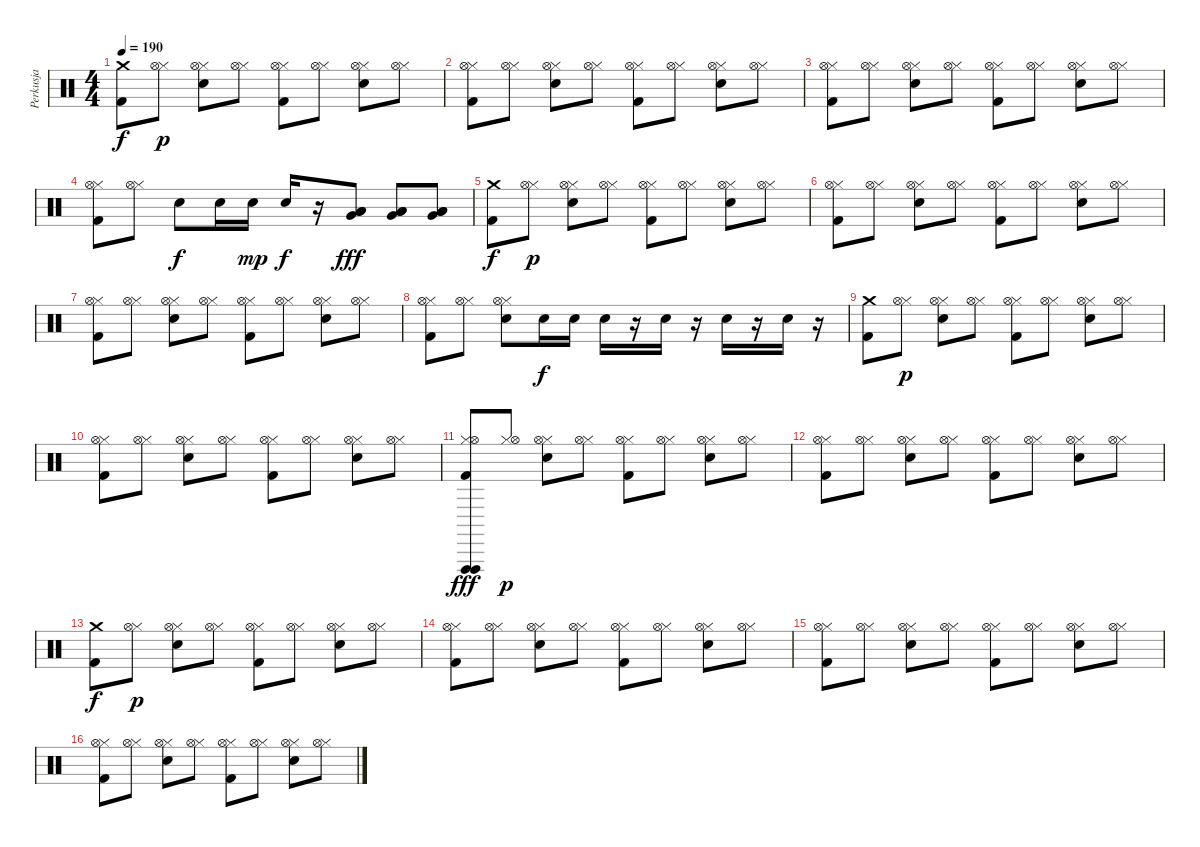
\track ("Perkusja" "Perkusja") {instrument percussion}
\staff {score}
\articulation defaults
\ts (4 4)
\tempo 190
\clef neutral
\ks c
("Kick (hit) 2" "Crash medium (hit)").8{dy f} ("Hi-Hat (closed)" "Hi-Hat (open)").8{dy p} ("Electric Snare (hit)" "Hi-Hat (closed)" "Hi-Hat (open)").8 ("Hi-Hat (closed)" "Hi-Hat (open)").8 ("Kick (hit) 2" "Hi-Hat (closed)" "Hi-Hat (open)").8 ("Hi-Hat (closed)" "Hi-Hat (open)").8 ("Electric Snare (hit)" "Hi-Hat (closed)" "Hi-Hat (open)").8 ("Hi-Hat (closed)" "Hi-Hat (open)").8 |
("Kick (hit) 2" "Hi-Hat (closed)" "Hi-Hat (open)").8 ("Hi-Hat (closed)" "Hi-Hat (open)").8 ("Electric Snare (hit)" "Hi-Hat (closed)" "Hi-Hat (open)").8 ("Hi-Hat (closed)" "Hi-Hat (open)").8 ("Kick (hit) 2" "Hi-Hat (closed)" "Hi-Hat (open)").8 ("Hi-Hat (closed)" "Hi-Hat (open)").8 ("Electric Snare (hit)" "Hi-Hat (closed)" "Hi-Hat (open)").8 ("Hi-Hat (closed)" "Hi-Hat (open)").8 |
("Kick (hit) 2" "Hi-Hat (closed)" "Hi-Hat (open)").8 ("Hi-Hat (closed)" "Hi-Hat (open)").8 ("Electric Snare (hit)" "Hi-Hat (closed)" "Hi-Hat (open)").8 ("Hi-Hat (closed)" "Hi-Hat (open)").8 ("Kick (hit) 2" "Hi-Hat (closed)" "Hi-Hat (open)").8 ("Hi-Hat (closed)" "Hi-Hat (open)").8 ("Electric Snare (hit)" "Hi-Hat (closed)" "Hi-Hat (open)").8 ("Hi-Hat (closed)" "Hi-Hat (open)").8 |
("Kick (hit) 2" "Hi-Hat (closed)" "Hi-Hat (open)").8 ("Hi-Hat (closed)" "Hi-Hat (open)").8 "Electric Snare (hit)".8{dy f} "Electric Snare (hit)".16 "Electric Snare (hit)".16{dy mp} "Electric Snare (hit)".16{dy f} r.16 ("Very Low Tom (hit)" "Low Tom (hit)" "Low Floor Tom (hit)").8{dy fff} ("Very Low Tom (hit)" "Low Tom (hit)" "Low Floor Tom (hit)").8 ("Very Low Tom (hit)" "Low Tom (hit)" "Low Floor Tom (hit)").8 |
("Kick (hit) 2" "Crash medium (hit)").8{dy f} ("Hi-Hat (closed)" "Hi-Hat (open)").8{dy p} ("Electric Snare (hit)" "Hi-Hat (closed)" "Hi-Hat (open)").8 ("Hi-Hat (closed)" "Hi-Hat (open)").8 ("Kick (hit) 2" "Hi-Hat (closed)" "Hi-Hat (open)").8 ("Hi-Hat (closed)" "Hi-Hat (open)").8 ("Electric Snare (hit)" "Hi-Hat (closed)" "Hi-Hat (open)").8 ("Hi-Hat (closed)" "Hi-Hat (open)").8 |
("Kick (hit) 2" "Hi-Hat (closed)" "Hi-Hat (open)").8 ("Hi-Hat (closed)" "Hi-Hat (open)").8 ("Electric Snare (hit)" "Hi-Hat (closed)" "Hi-Hat (open)").8 ("Hi-Hat (closed)" "Hi-Hat (open)").8 ("Kick (hit) 2" "Hi-Hat (closed)" "Hi-Hat (open)").8 ("Hi-Hat (closed)" "Hi-Hat (open)").8 ("Electric Snare (hit)" "Hi-Hat (closed)" "Hi-Hat (open)").8 ("Hi-Hat (closed)" "Hi-Hat (open)").8 |
("Kick (hit) 2" "Hi-Hat (closed)" "Hi-Hat (open)").8 ("Hi-Hat (closed)" "Hi-Hat (open)").8 ("Electric Snare (hit)" "Hi-Hat (closed)" "Hi-Hat (open)").8 ("Hi-Hat (closed)" "Hi-Hat (open)").8 ("Kick (hit) 2" "Hi-Hat (closed)" "Hi-Hat (open)").8 ("Hi-Hat (closed)" "Hi-Hat (open)").8 ("Electric Snare (hit)" "Hi-Hat (closed)" "Hi-Hat (open)").8 ("Hi-Hat (closed)" "Hi-Hat (open)").8 |
("Kick (hit) 2" "Hi-Hat (closed)" "Hi-Hat (open)").8 ("Hi-Hat (closed)" "Hi-Hat (open)").8 ("Electric Snare (hit)" "Hi-Hat (closed)" "Hi-Hat (open)").8 "Electric Snare (hit)".16{dy f} "Electric Snare (hit)".16 "Electric Snare (hit)".16 r.16 "Electric Snare (hit)".16 r.16 "Electric Snare (hit)".16 r.16 "Electric Snare (hit)".16 r.16 |
("Kick (hit) 2" "Crash medium (hit)").8 ("Hi-Hat (closed)" "Hi-Hat (open)").8{dy p} ("Electric Snare (hit)" "Hi-Hat (closed)" "Hi-Hat (open)").8 ("Hi-Hat (closed)" "Hi-Hat (open)").8 ("Kick (hit) 2" "Hi-Hat (closed)" "Hi-Hat (open)").8 ("Hi-Hat (closed)" "Hi-Hat (open)").8 ("Electric Snare (hit)" "Hi-Hat (closed)" "Hi-Hat (open)").8 ("Hi-Hat (closed)" "Hi-Hat (open)").8 |
("Kick (hit) 2" "Hi-Hat (closed)" "Hi-Hat (open)").8 ("Hi-Hat (closed)" "Hi-Hat (open)").8 ("Electric Snare (hit)" "Hi-Hat (closed)" "Hi-Hat (open)").8 ("Hi-Hat (closed)" "Hi-Hat (open)").8 ("Kick (hit) 2" "Hi-Hat (closed)" "Hi-Hat (open)").8 ("Hi-Hat (closed)" "Hi-Hat (open)").8 ("Electric Snare (hit)" "Hi-Hat (closed)" "Hi-Hat (open)").8 ("Hi-Hat (closed)" "Hi-Hat (open)").8 |
("Kick (hit) 2" "Hi-Hat (closed)" "Hi-Hat (open)" "Vibraslap (hit)" "Vibraslap (hit)").8{dy fff} ("Hi-Hat (closed)" "Hi-Hat (open)").8{dy p} ("Electric Snare (hit)" "Hi-Hat (closed)" "Hi-Hat (open)").8 ("Hi-Hat (closed)" "Hi-Hat (open)").8 ("Kick (hit) 2" "Hi-Hat (closed)" "Hi-Hat (open)").8 ("Hi-Hat (closed)" "Hi-Hat (open)").8 ("Electric Snare (hit)" "Hi-Hat (closed)" "Hi-Hat (open)").8 ("Hi-Hat (closed)" "Hi-Hat (open)").8 |
("Kick (hit) 2" "Hi-Hat (closed)" "Hi-Hat (open)").8 ("Hi-Hat (closed)" "Hi-Hat (open)").8 ("Electric Snare (hit)" "Hi-Hat (closed)" "Hi-Hat (open)").8 ("Hi-Hat (closed)" "Hi-Hat (open)").8 ("Kick (hit) 2" "Hi-Hat (closed)" "Hi-Hat (open)").8 ("Hi-Hat (closed)" "Hi-Hat (open)").8 ("Electric Snare (hit)" "Hi-Hat (closed)" "Hi-Hat (open)").8 ("Hi-Hat (closed)" "Hi-Hat (open)").8 |
("Kick (hit) 2" "Crash medium (hit)").8{dy f} ("Hi-Hat (closed)" "Hi-Hat (open)").8{dy p} ("Electric Snare (hit)" "Hi-Hat (closed)" "Hi-Hat (open)").8 ("Hi-Hat (closed)" "Hi-Hat (open)").8 ("Kick (hit) 2" "Hi-Hat (closed)" "Hi-Hat (open)").8 ("Hi-Hat (closed)" "Hi-Hat (open)").8 ("Electric Snare (hit)" "Hi-Hat (closed)" "Hi-Hat (open)").8 ("Hi-Hat (closed)" "Hi-Hat (open)").8 |
("Kick (hit) 2" "Hi-Hat (closed)" "Hi-Hat (open)").8 ("Hi-Hat (closed)" "Hi-Hat (open)").8 ("Electric Snare (hit)" "Hi-Hat (closed)" "Hi-Hat (open)").8 ("Hi-Hat (closed)" "Hi-Hat (open)").8 ("Kick (hit) 2" "Hi-Hat (closed)" "Hi-Hat (open)").8 ("Hi-Hat (closed)" "Hi-Hat (open)").8 ("Electric Snare (hit)" "Hi-Hat (closed)" "Hi-Hat (open)").8 ("Hi-Hat (closed)" "Hi-Hat (open)").8 |
("Kick (hit) 2" "Hi-Hat (closed)" "Hi-Hat (open)").8 ("Hi-Hat (closed)" "Hi-Hat (open)").8 ("Electric Snare (hit)" "Hi-Hat (closed)" "Hi-Hat (open)").8 ("Hi-Hat (closed)" "Hi-Hat (open)").8 ("Kick (hit) 2" "Hi-Hat (closed)" "Hi-Hat (open)").8 ("Hi-Hat (closed)" "Hi-Hat (open)").8 ("Electric Snare (hit)" "Hi-Hat (closed)" "Hi-Hat (open)").8 ("Hi-Hat (closed)" "Hi-Hat (open)").8 |
("Kick (hit) 2" "Hi-Hat (closed)" "Hi-Hat (open)").8 ("Hi-Hat (closed)" "Hi-Hat (open)").8 ("Electric Snare (hit)" "Hi-Hat (closed)" "Hi-Hat (open)").8 ("Hi-Hat (closed)" "Hi-Hat (open)").8 ("Kick (hit) 2" "Hi-Hat (closed)" "Hi-Hat (open)").8 ("Hi-Hat (closed)" "Hi-Hat (open)").8 ("Electric Snare (hit)" "Hi-Hat (closed)" "Hi-Hat (open)").8 ("Hi-Hat (closed)" "Hi-Hat (open)").8
